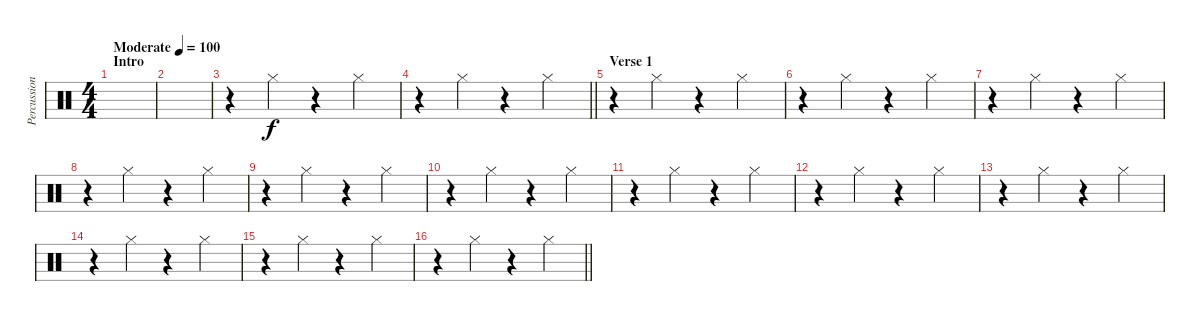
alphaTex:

\track ("Percussion" "Percussion") {instrument percussion}
\staff {score}
\articulation defaults
\ts (4 4)
\section ("" "Intro")
\tempo (100 "Moderate")
\clef neutral
\ks c
|
|
r.4{volume 10} "Hi-Hat (closed)".4 r.4 "Hi-Hat (closed)".4 |
\barLineRight lightlight
r.4 "Hi-Hat (closed)".4 r.4 "Hi-Hat (closed)".4 |
\section ("" "Verse 1")
r.4 "Hi-Hat (closed)".4 r.4 "Hi-Hat (closed)".4 |
r.4 "Hi-Hat (closed)".4 r.4 "Hi-Hat (closed)".4 |
r.4 "Hi-Hat (closed)".4 r.4 "Hi-Hat (closed)".4 |
r.4 "Hi-Hat (closed)".4 r.4 "Hi-Hat (closed)".4 |
r.4 "Hi-Hat (closed)".4 r.4 "Hi-Hat (closed)".4 |
r.4 "Hi-Hat (closed)".4 r.4 "Hi-Hat (closed)".4 |
r.4 "Hi-Hat (closed)".4 r.4 "Hi-Hat (closed)".4 |
r.4 "Hi-Hat (closed)".4 r.4 "Hi-Hat (closed)".4 |
r.4 "Hi-Hat (closed)".4 r.4 "Hi-Hat (closed)".4 |
r.4 "Hi-Hat (closed)".4 r.4 "Hi-Hat (closed)".4 |
r.4 "Hi-Hat (closed)".4 r.4 "Hi-Hat (closed)".4 |
\barLineRight lightlight
r.4 "Hi-Hat (closed)".4 r.4 "Hi-Hat (closed)".4
